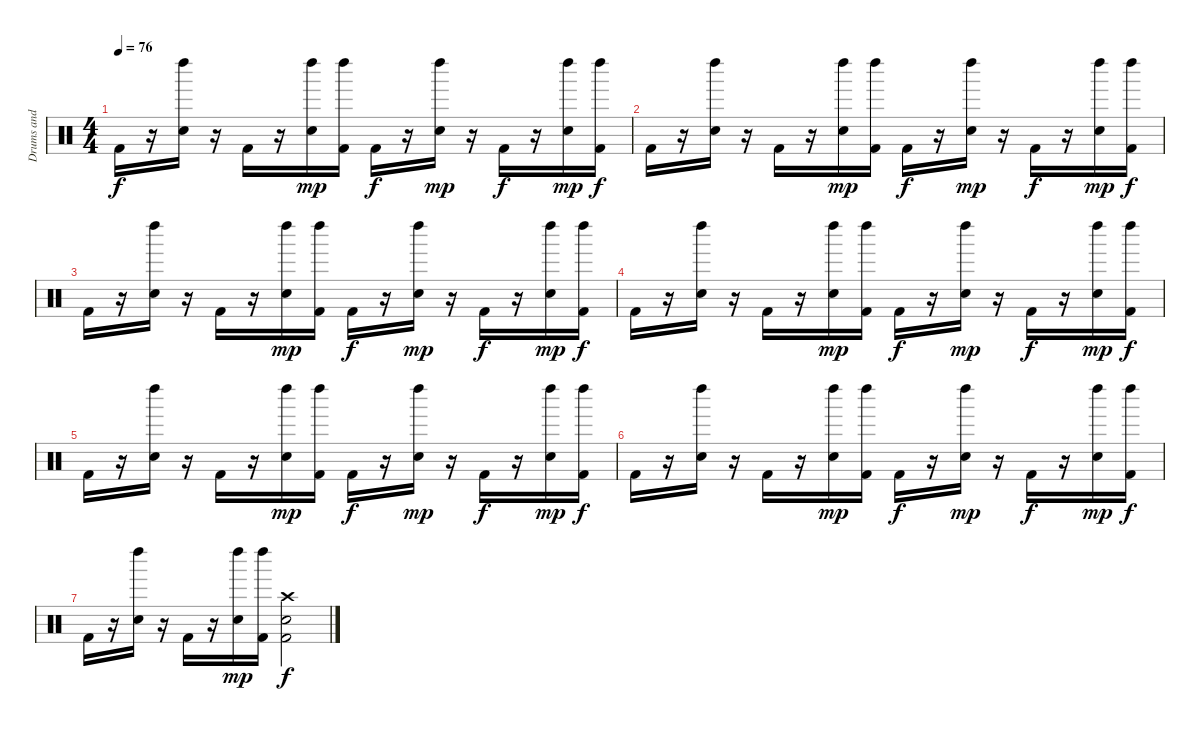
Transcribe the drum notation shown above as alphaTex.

\track ("Drums and Percussion" "Drums and ") {instrument percussion}
\staff {score}
\articulation defaults
\ts (4 4)
\tempo 76
\clef neutral
\ks c "Kick (hit) 2".16{dy f}
r.16 ("Snare (hit) 2" "Left Maraca (hit)").16 r.16 "Kick (hit) 2".16 r.16 ("Snare (hit) 2" "Left Maraca (hit)").16{dy mp} ("Left Maraca (hit)" "Kick (hit) 2").16 "Kick (hit) 2".16{dy f} r.16 ("Snare (hit) 2" "Left Maraca (hit)").16{dy mp} r.16 "Kick (hit) 2".16{dy f} r.16 ("Snare (hit) 2" "Left Maraca (hit)").16{dy mp} ("Left Maraca (hit)" "Kick (hit) 2").16{dy f} |
"Kick (hit) 2".16 r.16 ("Snare (hit) 2" "Left Maraca (hit)").16 r.16 "Kick (hit) 2".16 r.16 ("Snare (hit) 2" "Left Maraca (hit)").16{dy mp} ("Left Maraca (hit)" "Kick (hit) 2").16 "Kick (hit) 2".16{dy f} r.16 ("Snare (hit) 2" "Left Maraca (hit)").16{dy mp} r.16 "Kick (hit) 2".16{dy f} r.16 ("Snare (hit) 2" "Left Maraca (hit)").16{dy mp} ("Left Maraca (hit)" "Kick (hit) 2").16{dy f} |
"Kick (hit) 2".16 r.16 ("Snare (hit) 2" "Left Maraca (hit)").16 r.16 "Kick (hit) 2".16 r.16 ("Snare (hit) 2" "Left Maraca (hit)").16{dy mp} ("Left Maraca (hit)" "Kick (hit) 2").16 "Kick (hit) 2".16{dy f} r.16 ("Snare (hit) 2" "Left Maraca (hit)").16{dy mp} r.16 "Kick (hit) 2".16{dy f} r.16 ("Snare (hit) 2" "Left Maraca (hit)").16{dy mp} ("Left Maraca (hit)" "Kick (hit) 2").16{dy f} |
"Kick (hit) 2".16 r.16 ("Snare (hit) 2" "Left Maraca (hit)").16 r.16 "Kick (hit) 2".16 r.16 ("Snare (hit) 2" "Left Maraca (hit)").16{dy mp} ("Left Maraca (hit)" "Kick (hit) 2").16 "Kick (hit) 2".16{dy f} r.16 ("Snare (hit) 2" "Left Maraca (hit)").16{dy mp} r.16 "Kick (hit) 2".16{dy f} r.16 ("Snare (hit) 2" "Left Maraca (hit)").16{dy mp} ("Left Maraca (hit)" "Kick (hit) 2").16{dy f} |
"Kick (hit) 2".16 r.16 ("Snare (hit) 2" "Left Maraca (hit)").16 r.16 "Kick (hit) 2".16 r.16 ("Snare (hit) 2" "Left Maraca (hit)").16{dy mp} ("Left Maraca (hit)" "Kick (hit) 2").16 "Kick (hit) 2".16{dy f} r.16 ("Snare (hit) 2" "Left Maraca (hit)").16{dy mp} r.16 "Kick (hit) 2".16{dy f} r.16 ("Snare (hit) 2" "Left Maraca (hit)").16{dy mp} ("Left Maraca (hit)" "Kick (hit) 2").16{dy f} |
"Kick (hit) 2".16 r.16 ("Snare (hit) 2" "Left Maraca (hit)").16 r.16 "Kick (hit) 2".16 r.16 ("Snare (hit) 2" "Left Maraca (hit)").16{dy mp} ("Left Maraca (hit)" "Kick (hit) 2").16 "Kick (hit) 2".16{dy f} r.16 ("Snare (hit) 2" "Left Maraca (hit)").16{dy mp} r.16 "Kick (hit) 2".16{dy f} r.16 ("Snare (hit) 2" "Left Maraca (hit)").16{dy mp} ("Left Maraca (hit)" "Kick (hit) 2").16{dy f} |
"Kick (hit) 2".16 r.16 ("Snare (hit) 2" "Left Maraca (hit)").16 r.16 "Kick (hit) 2".16 r.16 ("Snare (hit) 2" "Left Maraca (hit)").16{dy mp} ("Left Maraca (hit)" "Kick (hit) 2").16 ("Crash high (hit)" "Snare (hit) 2" "Kick (hit) 2").2{dy f}
